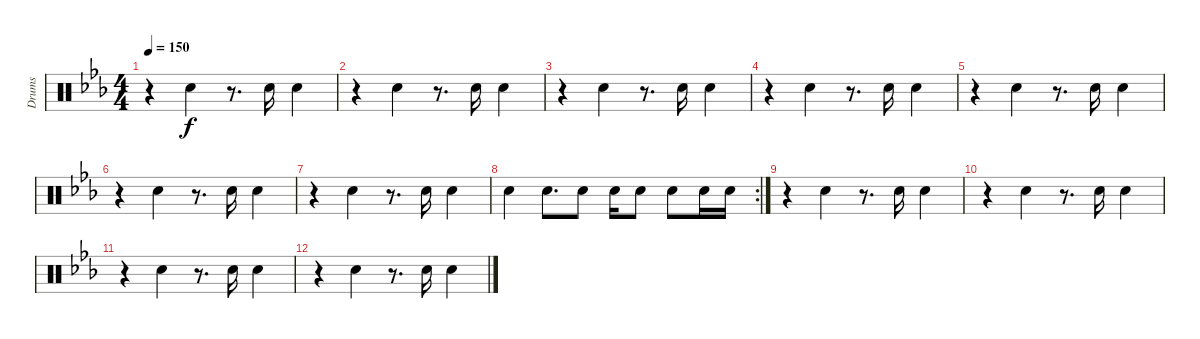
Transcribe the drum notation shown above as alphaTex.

\track ("Drums" "Drums") {instrument percussion}
\staff {score}
\articulation defaults
\ts (4 4)
\tempo 150
\clef neutral
\ks cminor
r.4{dy f} "Snare (hit) 2".4 r.8{d} "Snare (hit) 2".16 "Snare (hit) 2".4 |
r.4 "Snare (hit) 2".4 r.8{d} "Snare (hit) 2".16 "Snare (hit) 2".4 |
r.4 "Snare (hit) 2".4 r.8{d} "Snare (hit) 2".16 "Snare (hit) 2".4 |
r.4 "Snare (hit) 2".4 r.8{d} "Snare (hit) 2".16 "Snare (hit) 2".4 |
r.4 "Snare (hit) 2".4 r.8{d} "Snare (hit) 2".16 "Snare (hit) 2".4 |
r.4 "Snare (hit) 2".4 r.8{d} "Snare (hit) 2".16 "Snare (hit) 2".4 |
r.4 "Snare (hit) 2".4 r.8{d} "Snare (hit) 2".16 "Snare (hit) 2".4 |
\rc 2 "Snare (hit) 2".4 "Snare (hit) 2".8{d} "Snare (hit) 2".8 "Snare (hit) 2".16 "Snare (hit) 2".8 "Snare (hit) 2".8 "Snare (hit) 2".16 "Snare (hit) 2".16
|
r.4 "Snare (hit) 2".4 r.8{d} "Snare (hit) 2".16 "Snare (hit) 2".4 |
r.4 "Snare (hit) 2".4 r.8{d} "Snare (hit) 2".16 "Snare (hit) 2".4 |
r.4 "Snare (hit) 2".4 r.8{d} "Snare (hit) 2".16 "Snare (hit) 2".4 |
r.4 "Snare (hit) 2".4 r.8{d} "Snare (hit) 2".16 "Snare (hit) 2".4
